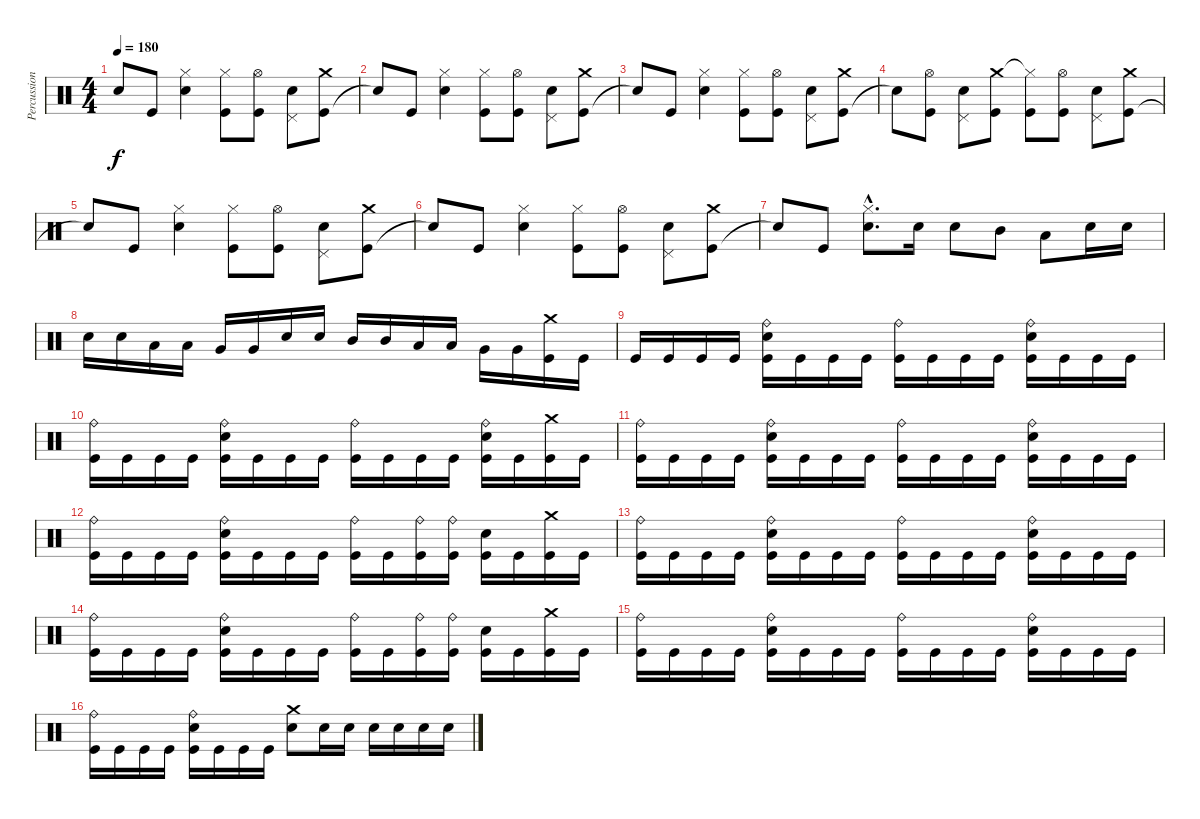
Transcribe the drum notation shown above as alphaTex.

\track ("Percussions" "Percussion") {instrument percussion}
\staff {score}
\articulation defaults
\ts (4 4)
\tempo 180
\clef neutral
\ks c "Snare (hit)"{t}.8{dy f} "Kick (hit)".8
("Electric Snare (hit)" "Hi-Hat (closed)").4 ("Kick (hit)" "Hi-Hat (closed)").8 ("Kick (hit)" "Hi-Hat (open)").8 ("Electric Snare (hit)" "Pedal Hi-Hat (hit)").8 ("Kick (hit)" "Crash medium (hit)").8 |
"Snare (hit)"{t}.8 "Kick (hit)".8 ("Electric Snare (hit)" "Hi-Hat (closed)").4 ("Kick (hit)" "Hi-Hat (closed)").8 ("Kick (hit)" "Hi-Hat (open)").8 ("Electric Snare (hit)" "Pedal Hi-Hat (hit)").8 ("Kick (hit)" "Crash medium (hit)").8 |
"Snare (hit)"{t}.8 "Kick (hit)".8 ("Electric Snare (hit)" "Hi-Hat (closed)").4 ("Kick (hit)" "Hi-Hat (closed)").8 ("Kick (hit)" "Hi-Hat (open)").8 ("Electric Snare (hit)" "Pedal Hi-Hat (hit)").8 ("Kick (hit)" "Crash medium (hit)").8 |
"Snare (hit)"{t}.8 ("Kick (hit)" "Hi-Hat (open)").8 ("Electric Snare (hit)" "Pedal Hi-Hat (hit)").8 ("Kick (hit)" "Crash medium (hit)").8 ("Kick (hit)" "Hi-Hat (closed)"{t}).8 ("Kick (hit)" "Hi-Hat (open)").8 ("Electric Snare (hit)" "Pedal Hi-Hat (hit)").8 ("Kick (hit)" "Crash medium (hit)").8 |
"Snare (hit)"{t}.8 "Kick (hit)".8 ("Electric Snare (hit)" "Hi-Hat (closed)").4 ("Kick (hit)" "Hi-Hat (closed)").8 ("Kick (hit)" "Hi-Hat (open)").8 ("Electric Snare (hit)" "Pedal Hi-Hat (hit)").8 ("Kick (hit)" "Crash medium (hit)").8 |
"Snare (hit)"{t}.8 "Kick (hit)".8 ("Electric Snare (hit)" "Hi-Hat (closed)").4 ("Kick (hit)" "Hi-Hat (closed)").8 ("Kick (hit)" "Hi-Hat (open)").8 ("Electric Snare (hit)" "Pedal Hi-Hat (hit)").8 ("Kick (hit)" "Crash medium (hit)").8 |
"Snare (hit)"{t}.8 "Kick (hit)".8 ("Electric Snare (hit)"{hac} "Hi-Hat (closed)"{hac}).8{d} "Electric Snare (hit)".16 "Electric Snare (hit)".8 "Mid Tom (hit)".8 "Low Tom (hit)".8 "Electric Snare (hit)".16 "Electric Snare (hit)".16 |
"Electric Snare (hit)".16 "Electric Snare (hit)".16 "Low Tom (hit)".16 "Low Tom (hit)".16 "Very Low Tom (hit)".16 "Very Low Tom (hit)".16 "Electric Snare (hit)".16 "Electric Snare (hit)".16 "Mid Tom (hit)".16 "Mid Tom (hit)".16 "Low Tom (hit)".16 "Low Tom (hit)".16 "Very Low Tom (hit)".16 "Very Low Tom (hit)".16 ("Kick (hit)" "Crash medium (hit)").16 "Kick (hit)".16 |
"Kick (hit)".16 "Kick (hit)".16 "Kick (hit)".16 "Kick (hit)".16 ("Kick (hit)" "Electric Snare (hit)" "Ride (bell)").16 "Kick (hit)".16 "Kick (hit)".16 "Kick (hit)".16 ("Kick (hit)" "Ride (bell)").16 "Kick (hit)".16 "Kick (hit)".16 "Kick (hit)".16 ("Kick (hit)" "Electric Snare (hit)" "Ride (bell)").16 "Kick (hit)".16 "Kick (hit)".16 "Kick (hit)".16 |
("Kick (hit)" "Ride (bell)").16 "Kick (hit)".16 "Kick (hit)".16 "Kick (hit)".16 ("Kick (hit)" "Electric Snare (hit)" "Ride (bell)").16 "Kick (hit)".16 "Kick (hit)".16 "Kick (hit)".16 ("Kick (hit)" "Ride (bell)").16 "Kick (hit)".16 "Kick (hit)".16 "Kick (hit)".16 ("Kick (hit)" "Electric Snare (hit)" "Ride (bell)").16 "Kick (hit)".16 ("Kick (hit)" "Crash medium (hit)").16 "Kick (hit)".16 |
("Kick (hit)" "Ride (bell)").16 "Kick (hit)".16 "Kick (hit)".16 "Kick (hit)".16 ("Kick (hit)" "Electric Snare (hit)" "Ride (bell)").16 "Kick (hit)".16 "Kick (hit)".16 "Kick (hit)".16 ("Kick (hit)" "Ride (bell)").16 "Kick (hit)".16 "Kick (hit)".16 "Kick (hit)".16 ("Kick (hit)" "Electric Snare (hit)" "Ride (bell)").16 "Kick (hit)".16 "Kick (hit)".16 "Kick (hit)".16 |
("Kick (hit)" "Ride (bell)").16 "Kick (hit)".16 "Kick (hit)".16 "Kick (hit)".16 ("Kick (hit)" "Electric Snare (hit)" "Ride (bell)").16 "Kick (hit)".16 "Kick (hit)".16 "Kick (hit)".16 ("Kick (hit)" "Ride (bell)").16 "Kick (hit)".16 ("Kick (hit)" "Ride (bell)").16 ("Kick (hit)" "Ride (bell)").16 ("Kick (hit)" "Electric Snare (hit)").16 "Kick (hit)".16 ("Kick (hit)" "Crash medium (hit)").16 "Kick (hit)".16 |
("Kick (hit)" "Ride (bell)").16 "Kick (hit)".16 "Kick (hit)".16 "Kick (hit)".16 ("Kick (hit)" "Electric Snare (hit)" "Ride (bell)").16 "Kick (hit)".16 "Kick (hit)".16 "Kick (hit)".16 ("Kick (hit)" "Ride (bell)").16 "Kick (hit)".16 "Kick (hit)".16 "Kick (hit)".16 ("Kick (hit)" "Electric Snare (hit)" "Ride (bell)").16 "Kick (hit)".16 "Kick (hit)".16 "Kick (hit)".16 |
("Kick (hit)" "Ride (bell)").16 "Kick (hit)".16 "Kick (hit)".16 "Kick (hit)".16 ("Kick (hit)" "Electric Snare (hit)" "Ride (bell)").16 "Kick (hit)".16 "Kick (hit)".16 "Kick (hit)".16 ("Kick (hit)" "Ride (bell)").16 "Kick (hit)".16 ("Kick (hit)" "Ride (bell)").16 ("Kick (hit)" "Ride (bell)").16 ("Kick (hit)" "Electric Snare (hit)").16 "Kick (hit)".16 ("Kick (hit)" "Crash medium (hit)").16 "Kick (hit)".16 |
("Kick (hit)" "Ride (bell)").16 "Kick (hit)".16 "Kick (hit)".16 "Kick (hit)".16 ("Kick (hit)" "Electric Snare (hit)" "Ride (bell)").16 "Kick (hit)".16 "Kick (hit)".16 "Kick (hit)".16 ("Kick (hit)" "Ride (bell)").16 "Kick (hit)".16 "Kick (hit)".16 "Kick (hit)".16 ("Kick (hit)" "Electric Snare (hit)" "Ride (bell)").16 "Kick (hit)".16 "Kick (hit)".16 "Kick (hit)".16 |
("Kick (hit)" "Ride (bell)").16 "Kick (hit)".16 "Kick (hit)".16 "Kick (hit)".16 ("Kick (hit)" "Electric Snare (hit)" "Ride (bell)").16 "Kick (hit)".16 "Kick (hit)".16 "Kick (hit)".16 ("Electric Snare (hit)" "Crash medium (hit)").8 "Electric Snare (hit)".16 "Electric Snare (hit)".16 "Electric Snare (hit)".16 "Electric Snare (hit)".16 "Electric Snare (hit)".16 "Electric Snare (hit)".16
